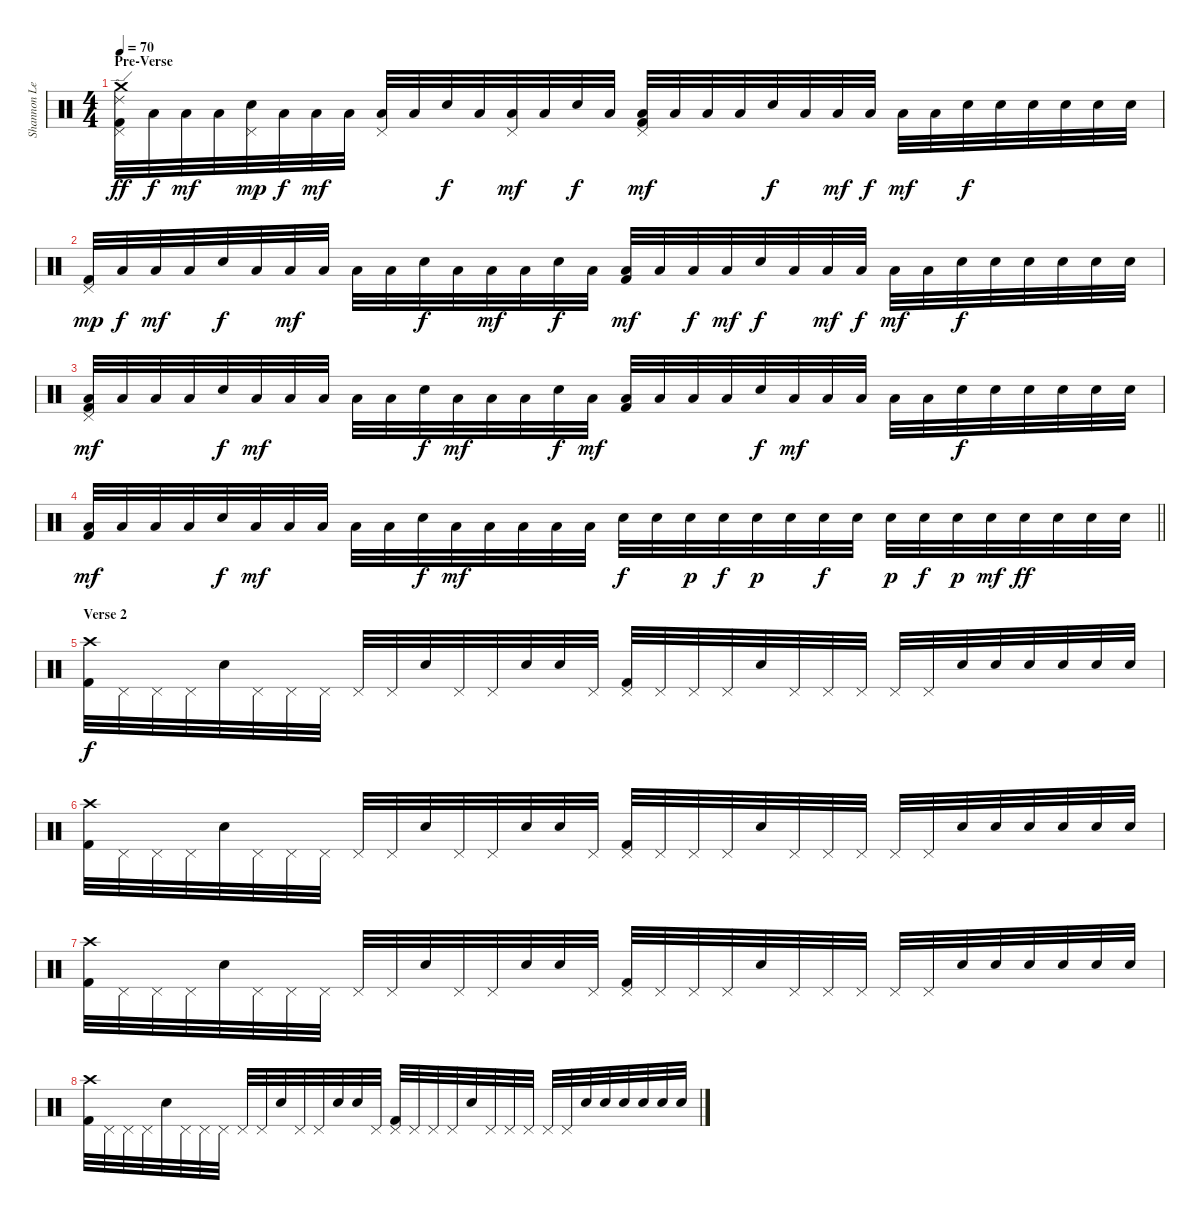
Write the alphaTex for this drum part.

\track ("Shannon Leto - Drums" "Shannon Le") {instrument percussion}
\staff {score}
\articulation defaults
\ts (4 4)
\section ("" "Pre-Verse")
\tempo 70
\clef neutral
\ks c
("Crash medium (hit)" "Pedal Hi-Hat (hit)" "Ride (edge) 2" "Kick (hit) 2").32{dy ff} "Low Tom (hit)".32{dy f} "Low Tom (hit)".32{dy mf} "Low Tom (hit)".32 ("Pedal Hi-Hat (hit)" "Electric Snare (hit)").32{dy mp} "Low Tom (hit)".32{dy f} "Low Tom (hit)".32{dy mf} "Low Tom (hit)".32 ("Pedal Hi-Hat (hit)" "Low Tom (hit)").32 "Low Tom (hit)".32 "Electric Snare (hit)".32{dy f} "Low Tom (hit)".32 ("Pedal Hi-Hat (hit)" "Low Tom (hit)").32{dy mf} "Low Tom (hit)".32 "Electric Snare (hit)".32{dy f} "Low Tom (hit)".32 ("Pedal Hi-Hat (hit)" "Low Tom (hit)" "Kick (hit) 2").32{dy mf} "Low Tom (hit)".32 "Low Tom (hit)".32 "Low Tom (hit)".32 "Electric Snare (hit)".32{dy f} "Low Tom (hit)".32 "Low Tom (hit)".32{dy mf} "Low Tom (hit)".32{dy f} "Low Tom (hit)".32{dy mf} "Low Tom (hit)".32 "Electric Snare (hit)".32{dy f} "Electric Snare (hit)".32 "Electric Snare (hit)".32 "Electric Snare (hit)".32 "Electric Snare (hit)".32 "Electric Snare (hit)".32 |
("Pedal Hi-Hat (hit)" "Kick (hit) 2").32{dy mp} "Low Tom (hit)".32{dy f} "Low Tom (hit)".32{dy mf} "Low Tom (hit)".32 "Electric Snare (hit)".32{dy f} "Low Tom (hit)".32 "Low Tom (hit)".32{dy mf} "Low Tom (hit)".32 "Low Tom (hit)".32 "Low Tom (hit)".32 "Electric Snare (hit)".32{dy f} "Low Tom (hit)".32 "Low Tom (hit)".32{dy mf} "Low Tom (hit)".32 "Electric Snare (hit)".32{dy f} "Low Tom (hit)".32 ("Low Tom (hit)" "Kick (hit) 2").32{dy mf} "Low Tom (hit)".32 "Low Tom (hit)".32{dy f} "Low Tom (hit)".32{dy mf} "Electric Snare (hit)".32{dy f} "Low Tom (hit)".32 "Low Tom (hit)".32{dy mf} "Low Tom (hit)".32{dy f} "Low Tom (hit)".32{dy mf} "Low Tom (hit)".32 "Electric Snare (hit)".32{dy f} "Electric Snare (hit)".32 "Electric Snare (hit)".32 "Electric Snare (hit)".32 "Electric Snare (hit)".32 "Electric Snare (hit)".32 |
("Pedal Hi-Hat (hit)" "Low Tom (hit)" "Kick (hit) 2").32{dy mf} "Low Tom (hit)".32 "Low Tom (hit)".32 "Low Tom (hit)".32 "Electric Snare (hit)".32{dy f} "Low Tom (hit)".32{dy mf} "Low Tom (hit)".32 "Low Tom (hit)".32 "Low Tom (hit)".32 "Low Tom (hit)".32 "Electric Snare (hit)".32{dy f} "Low Tom (hit)".32{dy mf} "Low Tom (hit)".32 "Low Tom (hit)".32 "Electric Snare (hit)".32{dy f} "Low Tom (hit)".32{dy mf} ("Low Tom (hit)" "Kick (hit) 2").32 "Low Tom (hit)".32 "Low Tom (hit)".32 "Low Tom (hit)".32 "Electric Snare (hit)".32{dy f} "Low Tom (hit)".32{dy mf} "Low Tom (hit)".32 "Low Tom (hit)".32 "Low Tom (hit)".32 "Low Tom (hit)".32 "Electric Snare (hit)".32{dy f} "Electric Snare (hit)".32 "Electric Snare (hit)".32 "Electric Snare (hit)".32 "Electric Snare (hit)".32 "Electric Snare (hit)".32 |
\barLineRight lightlight
("Low Tom (hit)" "Kick (hit) 2").32{dy mf} "Low Tom (hit)".32 "Low Tom (hit)".32 "Low Tom (hit)".32 "Electric Snare (hit)".32{dy f} "Low Tom (hit)".32{dy mf} "Low Tom (hit)".32 "Low Tom (hit)".32 "Low Tom (hit)".32 "Low Tom (hit)".32 "Electric Snare (hit)".32{dy f} "Low Tom (hit)".32{dy mf} "Low Tom (hit)".32 "Low Tom (hit)".32 "Low Tom (hit)".32 "Low Tom (hit)".32 "Electric Snare (hit)".32{dy f} "Electric Snare (hit)".32 "Electric Snare (hit)".32{dy p} "Electric Snare (hit)".32{dy f} "Electric Snare (hit)".32{dy p} "Electric Snare (hit)".32 "Electric Snare (hit)".32{dy f} "Electric Snare (hit)".32 "Electric Snare (hit)".32{dy p} "Electric Snare (hit)".32{dy f} "Electric Snare (hit)".32{dy p} "Electric Snare (hit)".32{dy mf} "Electric Snare (hit)".32{dy ff} "Electric Snare (hit)".32 "Electric Snare (hit)".32 "Electric Snare (hit)".32 |
\section ("" "Verse 2")
("Crash high (hit)" "Kick (hit) 2").32{dy f} "Pedal Hi-Hat (hit)".32 "Pedal Hi-Hat (hit)".32 "Pedal Hi-Hat (hit)".32 "Electric Snare (hit)".32 "Pedal Hi-Hat (hit)".32 "Pedal Hi-Hat (hit)".32 "Pedal Hi-Hat (hit)".32 "Pedal Hi-Hat (hit)".32 "Pedal Hi-Hat (hit)".32 "Electric Snare (hit)".32 "Pedal Hi-Hat (hit)".32 "Pedal Hi-Hat (hit)".32 "Electric Snare (hit)".32 "Electric Snare (hit)".32 "Pedal Hi-Hat (hit)".32 ("Pedal Hi-Hat (hit)" "Kick (hit) 2").32 "Pedal Hi-Hat (hit)".32 "Pedal Hi-Hat (hit)".32 "Pedal Hi-Hat (hit)".32 "Electric Snare (hit)".32 "Pedal Hi-Hat (hit)".32 "Pedal Hi-Hat (hit)".32 "Pedal Hi-Hat (hit)".32 "Pedal Hi-Hat (hit)".32 "Pedal Hi-Hat (hit)".32 "Electric Snare (hit)".32 "Electric Snare (hit)".32 "Electric Snare (hit)".32 "Electric Snare (hit)".32 "Electric Snare (hit)".32 "Electric Snare (hit)".32 |
("Crash high (hit)" "Kick (hit) 2").32 "Pedal Hi-Hat (hit)".32 "Pedal Hi-Hat (hit)".32 "Pedal Hi-Hat (hit)".32 "Electric Snare (hit)".32 "Pedal Hi-Hat (hit)".32 "Pedal Hi-Hat (hit)".32 "Pedal Hi-Hat (hit)".32 "Pedal Hi-Hat (hit)".32 "Pedal Hi-Hat (hit)".32 "Electric Snare (hit)".32 "Pedal Hi-Hat (hit)".32 "Pedal Hi-Hat (hit)".32 "Electric Snare (hit)".32 "Electric Snare (hit)".32 "Pedal Hi-Hat (hit)".32 ("Pedal Hi-Hat (hit)" "Kick (hit) 2").32 "Pedal Hi-Hat (hit)".32 "Pedal Hi-Hat (hit)".32 "Pedal Hi-Hat (hit)".32 "Electric Snare (hit)".32 "Pedal Hi-Hat (hit)".32 "Pedal Hi-Hat (hit)".32 "Pedal Hi-Hat (hit)".32 "Pedal Hi-Hat (hit)".32 "Pedal Hi-Hat (hit)".32 "Electric Snare (hit)".32 "Electric Snare (hit)".32 "Electric Snare (hit)".32 "Electric Snare (hit)".32 "Electric Snare (hit)".32 "Electric Snare (hit)".32 |
("Crash high (hit)" "Kick (hit) 2").32 "Pedal Hi-Hat (hit)".32 "Pedal Hi-Hat (hit)".32 "Pedal Hi-Hat (hit)".32 "Electric Snare (hit)".32 "Pedal Hi-Hat (hit)".32 "Pedal Hi-Hat (hit)".32 "Pedal Hi-Hat (hit)".32 "Pedal Hi-Hat (hit)".32 "Pedal Hi-Hat (hit)".32 "Electric Snare (hit)".32 "Pedal Hi-Hat (hit)".32 "Pedal Hi-Hat (hit)".32 "Electric Snare (hit)".32 "Electric Snare (hit)".32 "Pedal Hi-Hat (hit)".32 ("Pedal Hi-Hat (hit)" "Kick (hit) 2").32 "Pedal Hi-Hat (hit)".32 "Pedal Hi-Hat (hit)".32 "Pedal Hi-Hat (hit)".32 "Electric Snare (hit)".32 "Pedal Hi-Hat (hit)".32 "Pedal Hi-Hat (hit)".32 "Pedal Hi-Hat (hit)".32 "Pedal Hi-Hat (hit)".32 "Pedal Hi-Hat (hit)".32 "Electric Snare (hit)".32 "Electric Snare (hit)".32 "Electric Snare (hit)".32 "Electric Snare (hit)".32 "Electric Snare (hit)".32 "Electric Snare (hit)".32 |
("Crash high (hit)" "Kick (hit) 2").32 "Pedal Hi-Hat (hit)".32 "Pedal Hi-Hat (hit)".32 "Pedal Hi-Hat (hit)".32 "Electric Snare (hit)".32 "Pedal Hi-Hat (hit)".32 "Pedal Hi-Hat (hit)".32 "Pedal Hi-Hat (hit)".32 "Pedal Hi-Hat (hit)".32 "Pedal Hi-Hat (hit)".32 "Electric Snare (hit)".32 "Pedal Hi-Hat (hit)".32 "Pedal Hi-Hat (hit)".32 "Electric Snare (hit)".32 "Electric Snare (hit)".32 "Pedal Hi-Hat (hit)".32 ("Pedal Hi-Hat (hit)" "Kick (hit) 2").32 "Pedal Hi-Hat (hit)".32 "Pedal Hi-Hat (hit)".32 "Pedal Hi-Hat (hit)".32 "Electric Snare (hit)".32 "Pedal Hi-Hat (hit)".32 "Pedal Hi-Hat (hit)".32 "Pedal Hi-Hat (hit)".32 "Pedal Hi-Hat (hit)".32 "Pedal Hi-Hat (hit)".32 "Electric Snare (hit)".32 "Electric Snare (hit)".32 "Electric Snare (hit)".32 "Electric Snare (hit)".32 "Electric Snare (hit)".32 "Electric Snare (hit)".32
